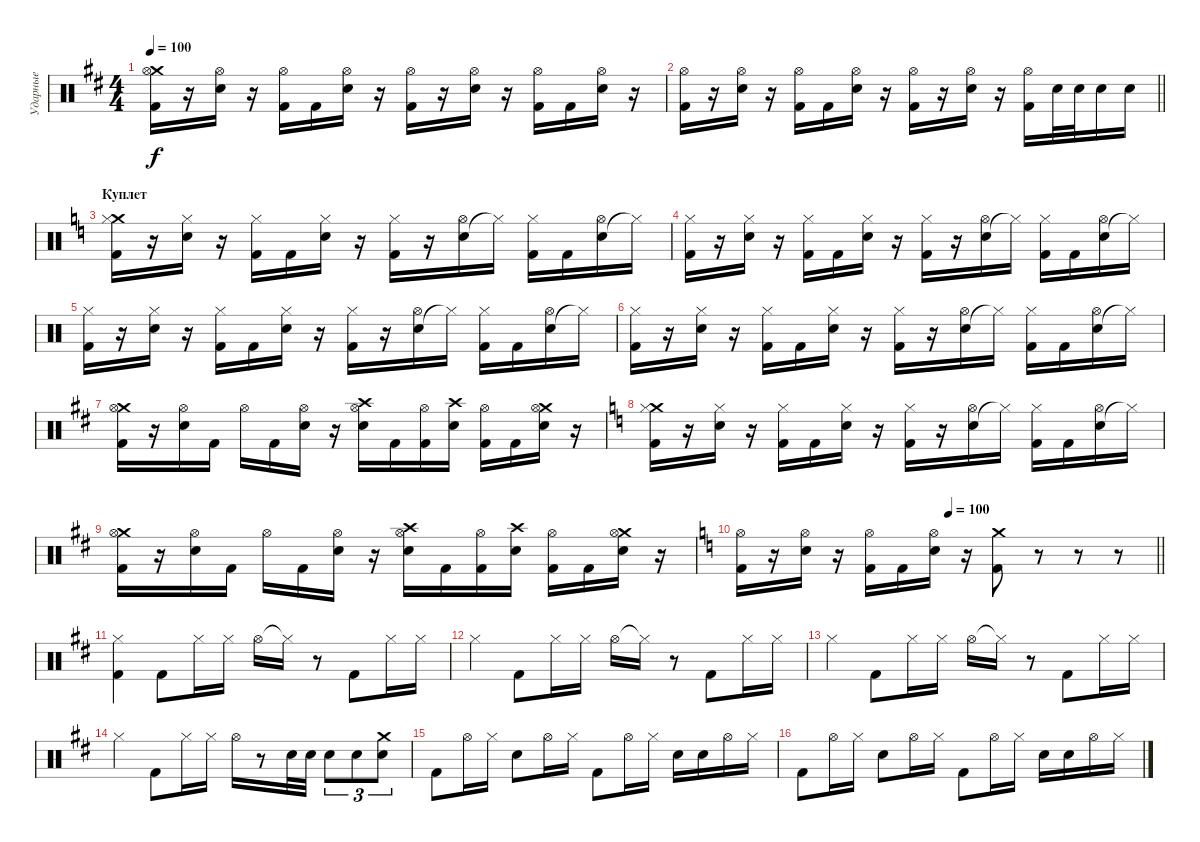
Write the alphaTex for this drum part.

\track ("Ударные" "Ударные") {instrument percussion}
\staff {score}
\articulation defaults
\ts (4 4)
\tempo 100
\clef neutral
\ks d
("Crash medium (hit)" "Kick (hit) 2" "Hi-Hat (open)").16{dy f} r.16 ("Electric Snare (hit)" "Hi-Hat (open)").16 r.16 ("Kick (hit) 2" "Hi-Hat (open)").16 "Kick (hit) 2".16 ("Electric Snare (hit)" "Hi-Hat (open)").16 r.16 ("Kick (hit) 2" "Hi-Hat (open)").16 r.16 ("Electric Snare (hit)" "Hi-Hat (open)").16 r.16 ("Kick (hit) 2" "Hi-Hat (open)").16 "Kick (hit) 2".16 ("Electric Snare (hit)" "Hi-Hat (open)").16 r.16 |
\barLineRight lightlight
("Kick (hit) 2" "Hi-Hat (open)").16 r.16 ("Electric Snare (hit)" "Hi-Hat (open)").16 r.16 ("Kick (hit) 2" "Hi-Hat (open)").16 "Kick (hit) 2".16 ("Electric Snare (hit)" "Hi-Hat (open)").16 r.16 ("Kick (hit) 2" "Hi-Hat (open)").16 r.16 ("Electric Snare (hit)" "Hi-Hat (open)").16 r.16 ("Kick (hit) 2" "Hi-Hat (open)").16 "Electric Snare (hit)".32 "Electric Snare (hit)".32 "Electric Snare (hit)".16 "Electric Snare (hit)".16 |
\section ("" "Куплет")
\ks c
("Crash medium (hit)" "Kick (hit) 2" "Hi-Hat (closed)").16 r.16 ("Electric Snare (hit)" "Hi-Hat (closed)").16 r.16 ("Kick (hit) 2" "Hi-Hat (closed)").16 "Kick (hit) 2".16 ("Electric Snare (hit)" "Hi-Hat (closed)").16 r.16 ("Kick (hit) 2" "Hi-Hat (closed)").16 r.16 ("Electric Snare (hit)" "Hi-Hat (open)").16 "Hi-Hat (closed)"{t}.16 ("Kick (hit) 2" "Hi-Hat (closed)").16 "Kick (hit) 2".16 ("Electric Snare (hit)" "Hi-Hat (open)").16 "Hi-Hat (closed)"{t}.16 |
("Kick (hit) 2" "Hi-Hat (closed)").16 r.16 ("Electric Snare (hit)" "Hi-Hat (closed)").16 r.16 ("Kick (hit) 2" "Hi-Hat (closed)").16 "Kick (hit) 2".16 ("Electric Snare (hit)" "Hi-Hat (closed)").16 r.16 ("Kick (hit) 2" "Hi-Hat (closed)").16 r.16 ("Electric Snare (hit)" "Hi-Hat (open)").16 "Hi-Hat (closed)"{t}.16 ("Kick (hit) 2" "Hi-Hat (closed)").16 "Kick (hit) 2".16 ("Electric Snare (hit)" "Hi-Hat (open)").16 "Hi-Hat (closed)"{t}.16 |
("Kick (hit) 2" "Hi-Hat (closed)").16 r.16 ("Electric Snare (hit)" "Hi-Hat (closed)").16 r.16 ("Kick (hit) 2" "Hi-Hat (closed)").16 "Kick (hit) 2".16 ("Electric Snare (hit)" "Hi-Hat (closed)").16 r.16 ("Kick (hit) 2" "Hi-Hat (closed)").16 r.16 ("Electric Snare (hit)" "Hi-Hat (open)").16 "Hi-Hat (closed)"{t}.16 ("Kick (hit) 2" "Hi-Hat (closed)").16 "Kick (hit) 2".16 ("Electric Snare (hit)" "Hi-Hat (open)").16 "Hi-Hat (closed)"{t}.16 |
("Kick (hit) 2" "Hi-Hat (closed)").16 r.16 ("Electric Snare (hit)" "Hi-Hat (closed)").16 r.16 ("Kick (hit) 2" "Hi-Hat (closed)").16 "Kick (hit) 2".16 ("Electric Snare (hit)" "Hi-Hat (closed)").16 r.16 ("Kick (hit) 2" "Hi-Hat (closed)").16 r.16 ("Electric Snare (hit)" "Hi-Hat (open)").16 "Hi-Hat (closed)"{t}.16 ("Kick (hit) 2" "Hi-Hat (closed)").16 "Kick (hit) 2".16 ("Electric Snare (hit)" "Hi-Hat (open)").16 "Hi-Hat (closed)"{t}.16 |
\ks d
("Crash medium (hit)" "Kick (hit) 2" "Hi-Hat (open)").16 r.16 ("Electric Snare (hit)" "Hi-Hat (open)").16 "Kick (hit) 2".16 "Hi-Hat (open)".16 "Kick (hit) 2".16 ("Electric Snare (hit)" "Hi-Hat (open)").16 r.16 ("Crash high (hit)" "Electric Snare (hit)" "Hi-Hat (open)").16 "Kick (hit) 2".16 ("Kick (hit) 2" "Hi-Hat (open)").16 ("Crash high (hit)" "Electric Snare (hit)").16 ("Kick (hit) 2" "Hi-Hat (open)").16 "Kick (hit) 2".16 ("Crash medium (hit)" "Electric Snare (hit)" "Hi-Hat (open)").16 r.16 |
\ks c
("Crash medium (hit)" "Kick (hit) 2" "Hi-Hat (closed)").16 r.16 ("Electric Snare (hit)" "Hi-Hat (closed)").16 r.16 ("Kick (hit) 2" "Hi-Hat (closed)").16 "Kick (hit) 2".16 ("Electric Snare (hit)" "Hi-Hat (closed)").16 r.16 ("Kick (hit) 2" "Hi-Hat (closed)").16 r.16 ("Electric Snare (hit)" "Hi-Hat (open)").16 "Hi-Hat (closed)"{t}.16 ("Kick (hit) 2" "Hi-Hat (closed)").16 "Kick (hit) 2".16 ("Electric Snare (hit)" "Hi-Hat (open)").16 "Hi-Hat (closed)"{t}.16 |
\ks d
("Crash medium (hit)" "Kick (hit) 2" "Hi-Hat (open)").16 r.16 ("Electric Snare (hit)" "Hi-Hat (open)").16 "Kick (hit) 2".16 "Hi-Hat (open)".16 "Kick (hit) 2".16 ("Electric Snare (hit)" "Hi-Hat (open)").16 r.16 ("Crash high (hit)" "Electric Snare (hit)" "Hi-Hat (open)").16 "Kick (hit) 2".16 ("Kick (hit) 2" "Hi-Hat (open)").16 ("Crash high (hit)" "Electric Snare (hit)").16 ("Kick (hit) 2" "Hi-Hat (open)").16 "Kick (hit) 2".16 ("Crash medium (hit)" "Electric Snare (hit)" "Hi-Hat (open)").16 r.16 |
\tempo (100 0.5)
\barLineRight lightlight
\ks c
("Kick (hit) 2" "Hi-Hat (open)").16 r.16 ("Electric Snare (hit)" "Hi-Hat (open)").16 r.16 ("Kick (hit) 2" "Hi-Hat (open)").16 "Kick (hit) 2".16 ("Electric Snare (hit)" "Hi-Hat (open)").16 r.16 ("Crash medium (hit)" "Kick (hit) 2").8 r.8 r.8 r.8 |
\section ("" "")
\ks d
("Hi-Hat (closed)" "Kick (hit) 2").4 "Kick (hit) 2".8 "Hi-Hat (closed)".16 "Hi-Hat (closed)".16 "Hi-Hat (open)".16 "Hi-Hat (closed)"{t}.16 r.8 "Kick (hit) 2".8 "Hi-Hat (closed)".16 "Hi-Hat (closed)".16 |
"Hi-Hat (closed)".4 "Kick (hit) 2".8 "Hi-Hat (closed)".16 "Hi-Hat (closed)".16 "Hi-Hat (open)".16 "Hi-Hat (closed)"{t}.16 r.8 "Kick (hit) 2".8 "Hi-Hat (closed)".16 "Hi-Hat (closed)".16 |
"Hi-Hat (closed)".4 "Kick (hit) 2".8 "Hi-Hat (closed)".16 "Hi-Hat (closed)".16 "Hi-Hat (open)".16 "Hi-Hat (closed)"{t}.16 r.8 "Kick (hit) 2".8 "Hi-Hat (closed)".16 "Hi-Hat (closed)".16 |
"Hi-Hat (closed)".4 "Kick (hit) 2".8 "Hi-Hat (closed)".16 "Hi-Hat (closed)".16 "Hi-Hat (open)".16 r.8 "Electric Snare (hit)".32 "Electric Snare (hit)".32 "Electric Snare (hit)".8{tu (3 2)} "Electric Snare (hit)".8{tu (3 2)} ("Crash medium (hit)" "Electric Snare (hit)").8{tu (3 2)} |
"Kick (hit) 2".8 "Hi-Hat (open)".16 "Hi-Hat (closed)".16 "Electric Snare (hit)".8 "Hi-Hat (open)".16 "Hi-Hat (closed)".16 "Kick (hit) 2".8 "Hi-Hat (open)".16 "Hi-Hat (closed)".16 "Electric Snare (hit)".16 "Electric Snare (hit)".16 "Hi-Hat (open)".16 "Hi-Hat (closed)".16 |
"Kick (hit) 2".8 "Hi-Hat (open)".16 "Hi-Hat (closed)".16 "Electric Snare (hit)".8 "Hi-Hat (open)".16 "Hi-Hat (closed)".16 "Kick (hit) 2".8 "Hi-Hat (open)".16 "Hi-Hat (closed)".16 "Electric Snare (hit)".16 "Electric Snare (hit)".16 "Hi-Hat (open)".16 "Hi-Hat (closed)".16
